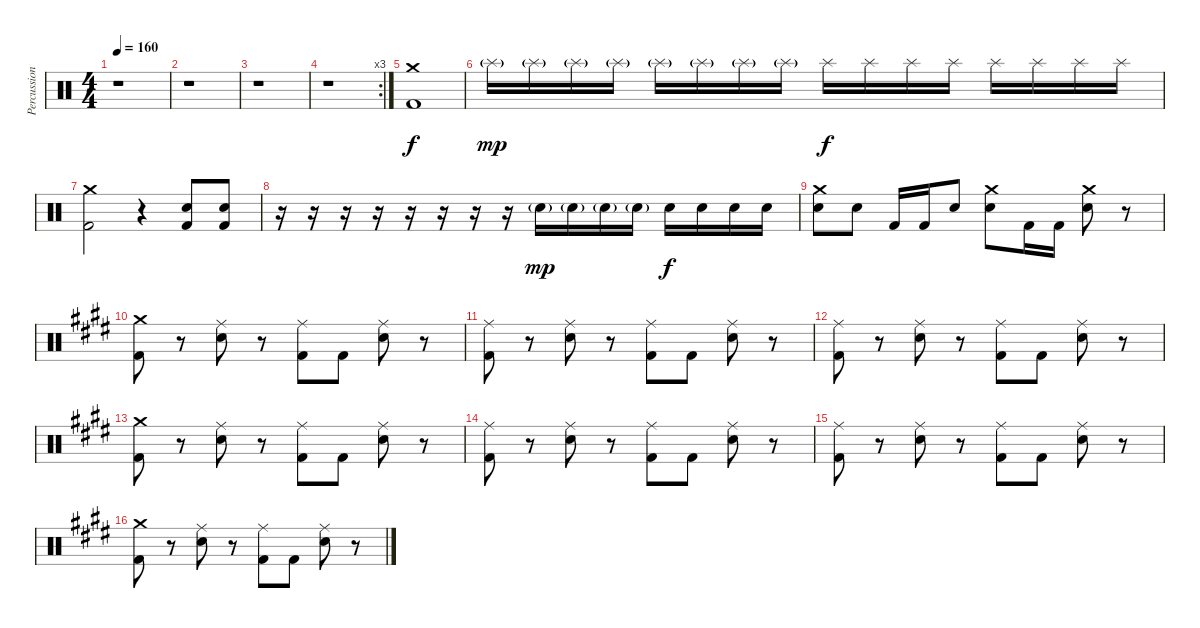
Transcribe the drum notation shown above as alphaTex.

\track ("Percussion" "Percussion") {instrument percussion}
\staff {score}
\articulation defaults
\ts (4 4)
\tempo 160
\clef neutral
\ks c
r.1{dy f} |
r.1 |
r.1 |
\rc 3
r.1 |
("Crash medium (hit)" "Kick (hit) 2").1 |
"Splash (hit)"{g}.16{dy mp} "Splash (hit)"{g}.16 "Splash (hit)"{g}.16 "Splash (hit)"{g}.16 "Splash (hit)"{g}.16 "Splash (hit)"{g}.16 "Splash (hit)"{g}.16 "Splash (hit)"{g}.16 "Splash (hit)".16{dy f} "Splash (hit)".16 "Splash (hit)".16 "Splash (hit)".16 "Splash (hit)".16 "Splash (hit)".16 "Splash (hit)".16 "Splash (hit)".16 |
("Crash medium (hit)" "Kick (hit) 2").2 r.4 ("Snare (hit) 2" "Kick (hit) 2").8 ("Snare (hit) 2" "Kick (hit) 2").8 |
r.16 r.16 r.16 r.16 r.16 r.16 r.16 r.16 "Snare (hit) 2"{g}.16{dy mp} "Snare (hit) 2"{g}.16 "Snare (hit) 2"{g}.16 "Snare (hit) 2"{g}.16 "Snare (hit) 2".16{dy f} "Snare (hit) 2".16 "Snare (hit) 2".16 "Snare (hit) 2".16 |
("Crash medium (hit)" "Snare (hit) 2").8 "Snare (hit) 2".8 "Kick (hit) 2".16 "Kick (hit) 2".16 "Snare (hit) 2".8 ("Crash medium (hit)" "Snare (hit) 2").8 "Kick (hit) 2".16 "Kick (hit) 2".16 ("Crash medium (hit)" "Snare (hit) 2").8 r.8 |
\ks e
("Crash medium (hit)" "Kick (hit) 2").8 r.8 ("Ride (middle)" "Snare (hit) 2").8 r.8 ("Ride (middle)" "Kick (hit) 2").8 "Kick (hit) 2".8 ("Ride (middle)" "Snare (hit) 2").8 r.8 |
("Ride (middle)" "Kick (hit) 2").8 r.8 ("Ride (middle)" "Snare (hit) 2").8 r.8 ("Ride (middle)" "Kick (hit) 2").8 "Kick (hit) 2".8 ("Ride (middle)" "Snare (hit) 2").8 r.8 |
("Ride (middle)" "Kick (hit) 2").8 r.8 ("Ride (middle)" "Snare (hit) 2").8 r.8 ("Ride (middle)" "Kick (hit) 2").8 "Kick (hit) 2".8 ("Ride (middle)" "Snare (hit) 2").8 r.8 |
("Crash medium (hit)" "Kick (hit) 2").8 r.8 ("Ride (middle)" "Snare (hit) 2").8 r.8 ("Ride (middle)" "Kick (hit) 2").8 "Kick (hit) 2".8 ("Ride (middle)" "Snare (hit) 2").8 r.8 |
("Ride (middle)" "Kick (hit) 2").8 r.8 ("Ride (middle)" "Snare (hit) 2").8 r.8 ("Ride (middle)" "Kick (hit) 2").8 "Kick (hit) 2".8 ("Ride (middle)" "Snare (hit) 2").8 r.8 |
("Ride (middle)" "Kick (hit) 2").8 r.8 ("Ride (middle)" "Snare (hit) 2").8 r.8 ("Ride (middle)" "Kick (hit) 2").8 "Kick (hit) 2".8 ("Ride (middle)" "Snare (hit) 2").8 r.8 |
("Crash medium (hit)" "Kick (hit) 2").8 r.8 ("Ride (middle)" "Snare (hit) 2").8 r.8 ("Ride (middle)" "Kick (hit) 2").8 "Kick (hit) 2".8 ("Ride (middle)" "Snare (hit) 2").8 r.8
